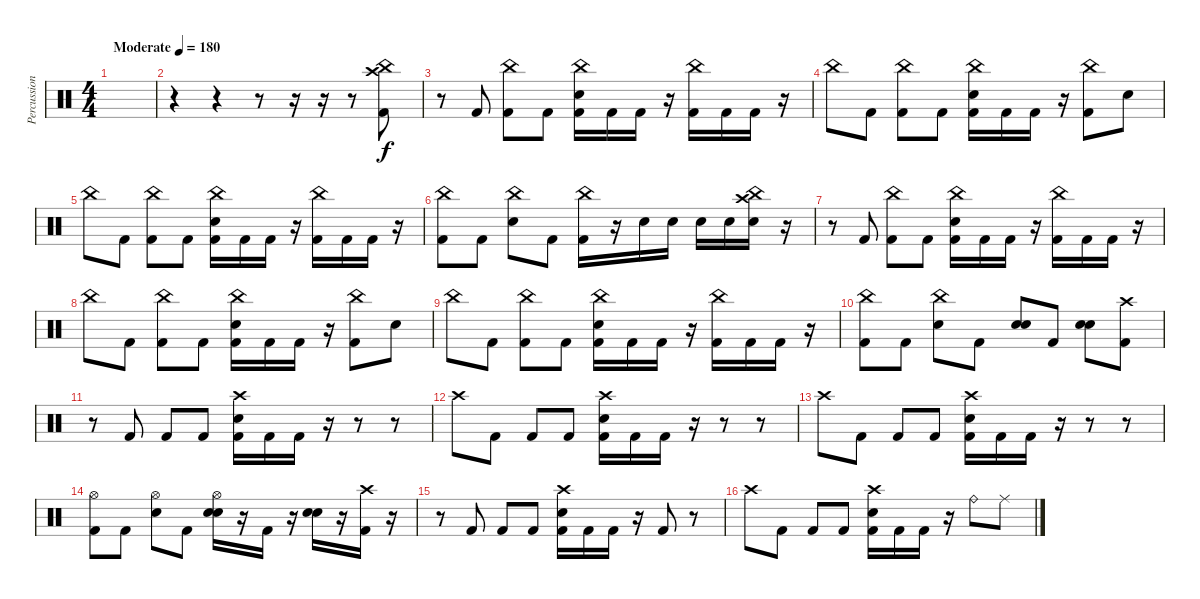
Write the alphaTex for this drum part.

\track ("Percussioni" "Percussion") {instrument percussion}
\staff {score}
\articulation defaults
\ts (4 4)
\tempo (180 "Moderate")
\clef neutral
\ks c
|
r.4 r.4 r.8 r.16 r.16 r.8 ("Crash high (hit)" "China (hit)" "Kick (hit) 2").8 |
r.8 "Kick (hit) 2".8 ("China (hit)" "Kick (hit) 2").8 "Kick (hit) 2".8 ("China (hit)" "Electric Snare (hit)" "Kick (hit) 2").16 "Kick (hit) 2".16 "Kick (hit) 2".16 r.16 ("China (hit)" "Kick (hit) 2").16 "Kick (hit) 2".16 "Kick (hit) 2".16 r.16 |
"China (hit)".8 "Kick (hit) 2".8 ("China (hit)" "Kick (hit) 2").8 "Kick (hit) 2".8 ("China (hit)" "Electric Snare (hit)" "Kick (hit) 2").16 "Kick (hit) 2".16 "Kick (hit) 2".16 r.16 ("China (hit)" "Kick (hit) 2").8 "Electric Snare (hit)".8 |
"China (hit)".8 "Kick (hit) 2".8 ("China (hit)" "Kick (hit) 2").8 "Kick (hit) 2".8 ("China (hit)" "Electric Snare (hit)" "Kick (hit) 2").16 "Kick (hit) 2".16 "Kick (hit) 2".16 r.16 ("China (hit)" "Kick (hit) 2").16 "Kick (hit) 2".16 "Kick (hit) 2".16 r.16 |
("China (hit)" "Kick (hit) 2").8 "Kick (hit) 2".8 ("China (hit)" "Electric Snare (hit)").8 "Kick (hit) 2".8 ("China (hit)" "Kick (hit) 2").16 r.16 "Electric Snare (hit)".16 "Electric Snare (hit)".16 "Electric Snare (hit)".16 "Electric Snare (hit)".16 ("Crash high (hit)" "China (hit)" "Electric Snare (hit)").16 r.16 |
r.8 "Kick (hit) 2".8 ("China (hit)" "Kick (hit) 2").8 "Kick (hit) 2".8 ("China (hit)" "Electric Snare (hit)" "Kick (hit) 2").16 "Kick (hit) 2".16 "Kick (hit) 2".16 r.16 ("China (hit)" "Kick (hit) 2").16 "Kick (hit) 2".16 "Kick (hit) 2".16 r.16 |
"China (hit)".8 "Kick (hit) 2".8 ("China (hit)" "Kick (hit) 2").8 "Kick (hit) 2".8 ("China (hit)" "Electric Snare (hit)" "Kick (hit) 2").16 "Kick (hit) 2".16 "Kick (hit) 2".16 r.16 ("China (hit)" "Kick (hit) 2").8 "Electric Snare (hit)".8 |
"China (hit)".8 "Kick (hit) 2".8 ("China (hit)" "Kick (hit) 2").8 "Kick (hit) 2".8 ("China (hit)" "Electric Snare (hit)" "Kick (hit) 2").16 "Kick (hit) 2".16 "Kick (hit) 2".16 r.16 ("China (hit)" "Kick (hit) 2").16 "Kick (hit) 2".16 "Kick (hit) 2".16 r.16 |
("China (hit)" "Kick (hit) 2").8 "Kick (hit) 2".8 ("China (hit)" "Electric Snare (hit)").8 "Kick (hit) 2".8 ("Electric Snare (hit)" "Electric Snare (hit)").8 "Kick (hit) 2".8 ("Electric Snare (hit)" "Electric Snare (hit)").8 ("Crash high (hit)" "Kick (hit) 2").8 |
r.8 "Kick (hit) 2".8 "Kick (hit) 2".8 "Kick (hit) 2".8 ("Crash high (hit)" "Electric Snare (hit)" "Kick (hit) 2").16 "Kick (hit) 2".16 "Kick (hit) 2".16 r.16 r.8 r.8 |
"Crash high (hit)".8 "Kick (hit) 2".8 "Kick (hit) 2".8 "Kick (hit) 2".8 ("Crash high (hit)" "Electric Snare (hit)" "Kick (hit) 2").16 "Kick (hit) 2".16 "Kick (hit) 2".16 r.16 r.8 r.8 |
"Crash high (hit)".8 "Kick (hit) 2".8 "Kick (hit) 2".8 "Kick (hit) 2".8 ("Crash high (hit)" "Electric Snare (hit)" "Kick (hit) 2").16 "Kick (hit) 2".16 "Kick (hit) 2".16 r.16 r.8 r.8 |
("Hi-Hat (open)" "Kick (hit) 2").8 "Kick (hit) 2".8 ("Hi-Hat (open)" "Electric Snare (hit)").8 "Kick (hit) 2".8 ("Hi-Hat (open)" "Electric Snare (hit)" "Electric Snare (hit)").16 r.16 "Kick (hit) 2".16 r.16 ("Electric Snare (hit)" "Electric Snare (hit)").16 r.16 ("Crash high (hit)" "Kick (hit) 2").16 r.16 |
r.8 "Kick (hit) 2".8 "Kick (hit) 2".8 "Kick (hit) 2".8 ("Crash high (hit)" "Electric Snare (hit)" "Kick (hit) 2").16 "Kick (hit) 2".16 "Kick (hit) 2".16 r.16 "Kick (hit) 2".8 r.8 |
"Crash high (hit)".8 "Kick (hit) 2".8 "Kick (hit) 2".8 "Kick (hit) 2".8 ("Crash high (hit)" "Electric Snare (hit)" "Kick (hit) 2").16 "Kick (hit) 2".16 "Kick (hit) 2".16 r.16 "Ride (bell)".8 "Ride (middle)".8
